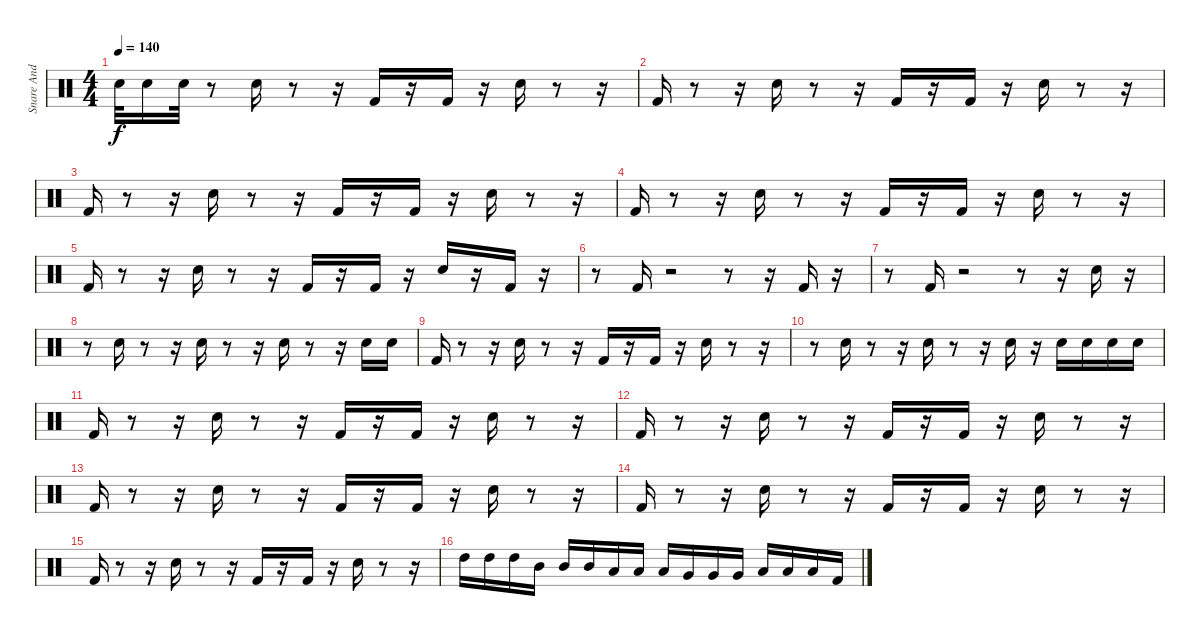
\track ("Snare And Bass Drums" "Snare And ") {instrument percussion}
\staff {score}
\articulation defaults
\ts (4 4)
\tempo 140
\clef neutral
\ks c "Snare (hit) 2".32{dy f} "Snare (hit) 2".16 "Snare (hit) 2".32
r.8 "Snare (hit) 2".16 r.8 r.16 "Kick (hit) 2".16 r.16 "Kick (hit) 2".16 r.16 "Snare (hit) 2".16 r.8 r.16 |
"Kick (hit) 2".16 r.8 r.16 "Snare (hit) 2".16 r.8 r.16 "Kick (hit) 2".16 r.16 "Kick (hit) 2".16 r.16 "Snare (hit) 2".16 r.8 r.16 |
"Kick (hit) 2".16 r.8 r.16 "Snare (hit) 2".16 r.8 r.16 "Kick (hit) 2".16 r.16 "Kick (hit) 2".16 r.16 "Snare (hit) 2".16 r.8 r.16 |
"Kick (hit) 2".16 r.8 r.16 "Snare (hit) 2".16 r.8 r.16 "Kick (hit) 2".16 r.16 "Kick (hit) 2".16 r.16 "Snare (hit) 2".16 r.8 r.16 |
"Kick (hit) 2".16 r.8 r.16 "Snare (hit) 2".16 r.8 r.16 "Kick (hit) 2".16 r.16 "Kick (hit) 2".16 r.16 "Snare (hit) 2".16 r.16 "Kick (hit) 2".16 r.16 |
r.8 "Kick (hit) 2".16 r.2 r.8 r.16 "Kick (hit) 2".16 r.16 |
r.8 "Kick (hit) 2".16 r.2 r.8 r.16 "Snare (hit) 2".16 r.16 |
r.8 "Snare (hit) 2".16 r.8 r.16 "Snare (hit) 2".16 r.8 r.16 "Snare (hit) 2".16 r.8 r.16 "Snare (hit) 2".16 "Snare (hit) 2".16 |
"Kick (hit) 2".16 r.8 r.16 "Snare (hit) 2".16 r.8 r.16 "Kick (hit) 2".16 r.16 "Kick (hit) 2".16 r.16 "Snare (hit) 2".16 r.8 r.16 |
r.8 "Snare (hit) 2".16 r.8 r.16 "Snare (hit) 2".16 r.8 r.16 "Snare (hit) 2".16 r.16 "Snare (hit) 2".16 "Snare (hit) 2".16 "Snare (hit) 2".16 "Snare (hit) 2".16 |
"Kick (hit) 2".16 r.8 r.16 "Snare (hit) 2".16 r.8 r.16 "Kick (hit) 2".16 r.16 "Kick (hit) 2".16 r.16 "Snare (hit) 2".16 r.8 r.16 |
"Kick (hit) 2".16 r.8 r.16 "Snare (hit) 2".16 r.8 r.16 "Kick (hit) 2".16 r.16 "Kick (hit) 2".16 r.16 "Snare (hit) 2".16 r.8 r.16 |
"Kick (hit) 2".16 r.8 r.16 "Snare (hit) 2".16 r.8 r.16 "Kick (hit) 2".16 r.16 "Kick (hit) 2".16 r.16 "Snare (hit) 2".16 r.8 r.16 |
"Kick (hit) 2".16 r.8 r.16 "Snare (hit) 2".16 r.8 r.16 "Kick (hit) 2".16 r.16 "Kick (hit) 2".16 r.16 "Snare (hit) 2".16 r.8 r.16 |
"Kick (hit) 2".16 r.8 r.16 "Snare (hit) 2".16 r.8 r.16 "Kick (hit) 2".16 r.16 "Kick (hit) 2".16 r.16 "Snare (hit) 2".16 r.8 r.16 |
"High Tom (hit)".16 "High Tom (hit)".16 "High Tom (hit)".16 "Mid Tom (hit)".16 "Mid Tom (hit)".16 "Mid Tom (hit)".16 "Low Tom (hit)".16 "Low Tom (hit)".16 "Low Tom (hit)".16 "Very Low Tom (hit)".16 "Very Low Tom (hit)".16 "Very Low Tom (hit)".16 "Low Floor Tom (hit)".16 "Low Floor Tom (hit)".16 "Low Floor Tom (hit)".16 "Kick (hit) 2".16
